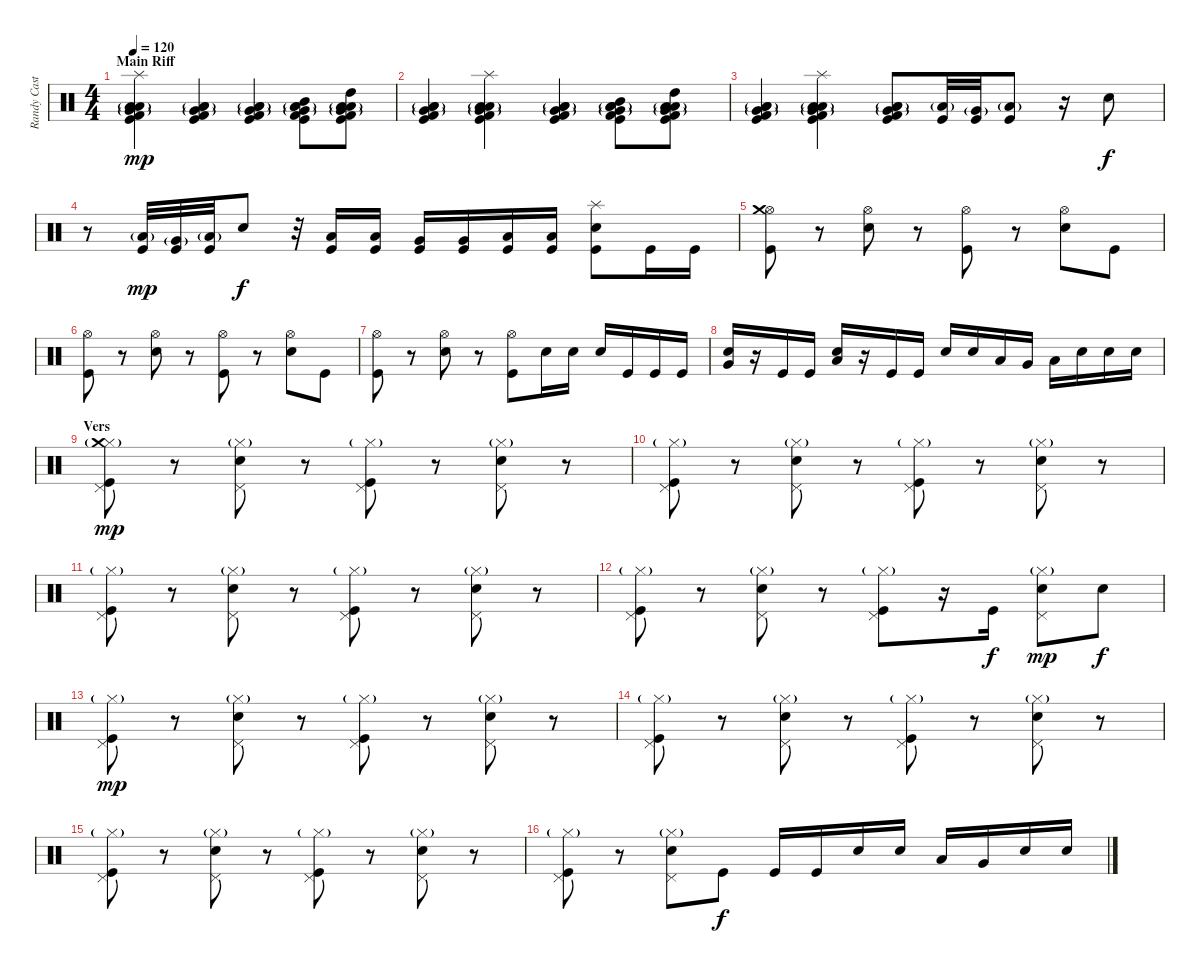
\track ("Randy Castiello (Dums)" "Randy Cast") {instrument percussion}
\staff {score}
\articulation defaults
\ts (4 4)
\section ("" "Main Riff")
\tempo 120
\clef neutral
\ks c
("Splash (hit)" "Low Tom (hit)"{g} "Very Low Tom (hit)"{g} "Low Floor Tom (hit)" "Kick (hit) 2" "Kick (hit)").4{dy mp} ("Low Tom (hit)"{g} "Very Low Tom (hit)"{g} "Low Floor Tom (hit)" "Kick (hit) 2" "Kick (hit)").4 ("Low Tom (hit)"{g} "Very Low Tom (hit)"{g} "Low Floor Tom (hit)" "Kick (hit) 2" "Kick (hit)").4 ("Mid Tom (hit)" "Low Tom (hit)"{g} "Very Low Tom (hit)"{g} "Low Floor Tom (hit)" "Kick (hit) 2" "Kick (hit)").8 ("High Tom (hit)" "Low Tom (hit)"{g} "Very Low Tom (hit)"{g} "Low Floor Tom (hit)" "Kick (hit) 2" "Kick (hit)").8 |
("Low Tom (hit)"{g} "Very Low Tom (hit)"{g} "Low Floor Tom (hit)" "Kick (hit) 2" "Kick (hit)").4 ("Splash (hit)" "Low Tom (hit)"{g} "Very Low Tom (hit)"{g} "Low Floor Tom (hit)" "Kick (hit) 2" "Kick (hit)").4 ("Low Tom (hit)"{g} "Very Low Tom (hit)"{g} "Low Floor Tom (hit)" "Kick (hit) 2" "Kick (hit)").4 ("Mid Tom (hit)" "Low Tom (hit)"{g} "Very Low Tom (hit)"{g} "Low Floor Tom (hit)" "Kick (hit) 2" "Kick (hit)").8 ("High Tom (hit)" "Low Tom (hit)"{g} "Very Low Tom (hit)"{g} "Low Floor Tom (hit)" "Kick (hit) 2" "Kick (hit)").8 |
("Low Tom (hit)"{g} "Very Low Tom (hit)"{g} "Low Floor Tom (hit)" "Kick (hit) 2" "Kick (hit)").4 ("Splash (hit)" "Low Tom (hit)"{g} "Very Low Tom (hit)"{g} "Low Floor Tom (hit)" "Kick (hit) 2" "Kick (hit)").4 ("Low Tom (hit)"{g} "Very Low Tom (hit)"{g} "Low Floor Tom (hit)" "Kick (hit) 2" "Kick (hit)").8 ("Low Tom (hit)"{g} "Kick (hit)").32 ("Very Low Tom (hit)"{g} "Kick (hit)").32 ("Low Floor Tom (hit)"{g} "Kick (hit)").8 r.16 "Snare (hit) 2".8{dy f} |
r.8 ("Low Tom (hit)"{g} "Kick (hit)").32{dy mp} ("Very Low Tom (hit)"{g} "Kick (hit)").32 ("Low Floor Tom (hit)"{g} "Kick (hit)").32 "Snare (hit) 2".8{dy f} r.32 ("Low Tom (hit)" "Kick (hit)").16 ("Low Tom (hit)" "Kick (hit)").16 ("Very Low Tom (hit)" "Kick (hit)").16 ("Very Low Tom (hit)" "Kick (hit)").16 ("Low Floor Tom (hit)" "Kick (hit)").16 ("Low Floor Tom (hit)" "Kick (hit)").16 ("Splash (hit)" "Snare (hit) 2" "Kick (hit)").8 "Kick (hit)".16 "Kick (hit)".16 |
("Hi-Hat (open)" "Crash medium (hit)" "Kick (hit)").8 r.8 ("Hi-Hat (open)" "Snare (hit) 2").8 r.8 ("Hi-Hat (open)" "Kick (hit)").8 r.8 ("Hi-Hat (open)" "Snare (hit) 2").8 "Kick (hit)".8 |
("Hi-Hat (open)" "Kick (hit)").8 r.8 ("Hi-Hat (open)" "Snare (hit) 2").8 r.8 ("Hi-Hat (open)" "Kick (hit)").8 r.8 ("Hi-Hat (open)" "Snare (hit) 2").8 "Kick (hit)".8 |
("Hi-Hat (open)" "Kick (hit)").8 r.8 ("Hi-Hat (open)" "Snare (hit) 2").8 r.8 ("Hi-Hat (open)" "Kick (hit)").8 "Snare (hit) 2".16 "Snare (hit) 2".16 "Snare (hit) 2".16 "Kick (hit)".16 "Kick (hit)".16 "Kick (hit)".16 |
("Very Low Tom (hit)" "Snare (hit) 2").16 r.16 "Kick (hit)".16 "Kick (hit)".16 ("Low Floor Tom (hit)" "Snare (hit) 2").16 r.16 "Kick (hit)".16 "Kick (hit)".16 "Snare (hit) 2".16 "Snare (hit) 2".16 "Low Tom (hit)".16 "Very Low Tom (hit)".16 "Low Floor Tom (hit)".16 "Snare (hit) 2".16 "Snare (hit) 2".16 "Snare (hit) 2".16 |
\section ("" "Vers")
("Pedal Hi-Hat (hit)" "Hi-Hat (closed)"{g} "Crash medium (hit)" "Kick (hit)").8{dy mp} r.8 ("Pedal Hi-Hat (hit)" "Hi-Hat (closed)"{g} "Snare (hit) 2").8 r.8 ("Pedal Hi-Hat (hit)" "Hi-Hat (closed)"{g} "Kick (hit)").8 r.8 ("Pedal Hi-Hat (hit)" "Hi-Hat (closed)"{g} "Snare (hit) 2").8 r.8 |
("Pedal Hi-Hat (hit)" "Hi-Hat (closed)"{g} "Kick (hit)").8 r.8 ("Pedal Hi-Hat (hit)" "Hi-Hat (closed)"{g} "Snare (hit) 2").8 r.8 ("Pedal Hi-Hat (hit)" "Hi-Hat (closed)"{g} "Kick (hit)").8 r.8 ("Pedal Hi-Hat (hit)" "Hi-Hat (closed)"{g} "Snare (hit) 2").8 r.8 |
("Pedal Hi-Hat (hit)" "Hi-Hat (closed)"{g} "Kick (hit)").8 r.8 ("Pedal Hi-Hat (hit)" "Hi-Hat (closed)"{g} "Snare (hit) 2").8 r.8 ("Pedal Hi-Hat (hit)" "Hi-Hat (closed)"{g} "Kick (hit)").8 r.8 ("Pedal Hi-Hat (hit)" "Hi-Hat (closed)"{g} "Snare (hit) 2").8 r.8 |
("Pedal Hi-Hat (hit)" "Hi-Hat (closed)"{g} "Kick (hit)").8 r.8 ("Pedal Hi-Hat (hit)" "Hi-Hat (closed)"{g} "Snare (hit) 2").8 r.8 ("Pedal Hi-Hat (hit)" "Hi-Hat (closed)"{g} "Kick (hit)").8 r.16 "Kick (hit)".16{dy f} ("Pedal Hi-Hat (hit)" "Hi-Hat (closed)"{g} "Snare (hit) 2").8{dy mp} "Snare (hit) 2".8{dy f} |
("Pedal Hi-Hat (hit)" "Hi-Hat (closed)"{g} "Kick (hit)").8{dy mp} r.8 ("Pedal Hi-Hat (hit)" "Hi-Hat (closed)"{g} "Snare (hit) 2").8 r.8 ("Pedal Hi-Hat (hit)" "Hi-Hat (closed)"{g} "Kick (hit)").8 r.8 ("Pedal Hi-Hat (hit)" "Hi-Hat (closed)"{g} "Snare (hit) 2").8 r.8 |
("Pedal Hi-Hat (hit)" "Hi-Hat (closed)"{g} "Kick (hit)").8 r.8 ("Pedal Hi-Hat (hit)" "Hi-Hat (closed)"{g} "Snare (hit) 2").8 r.8 ("Pedal Hi-Hat (hit)" "Hi-Hat (closed)"{g} "Kick (hit)").8 r.8 ("Pedal Hi-Hat (hit)" "Hi-Hat (closed)"{g} "Snare (hit) 2").8 r.8 |
("Pedal Hi-Hat (hit)" "Hi-Hat (closed)"{g} "Kick (hit)").8 r.8 ("Pedal Hi-Hat (hit)" "Hi-Hat (closed)"{g} "Snare (hit) 2").8 r.8 ("Pedal Hi-Hat (hit)" "Hi-Hat (closed)"{g} "Kick (hit)").8 r.8 ("Pedal Hi-Hat (hit)" "Hi-Hat (closed)"{g} "Snare (hit) 2").8 r.8 |
("Pedal Hi-Hat (hit)" "Hi-Hat (closed)"{g} "Kick (hit)").8 r.8 ("Pedal Hi-Hat (hit)" "Hi-Hat (closed)"{g} "Snare (hit) 2").8 "Kick (hit)".8{dy f} "Kick (hit)".16 "Kick (hit)".16 "Snare (hit) 2".16 "Snare (hit) 2".16 "Low Tom (hit)".16 "Very Low Tom (hit)".16 "Snare (hit) 2".16 "Snare (hit) 2".16
